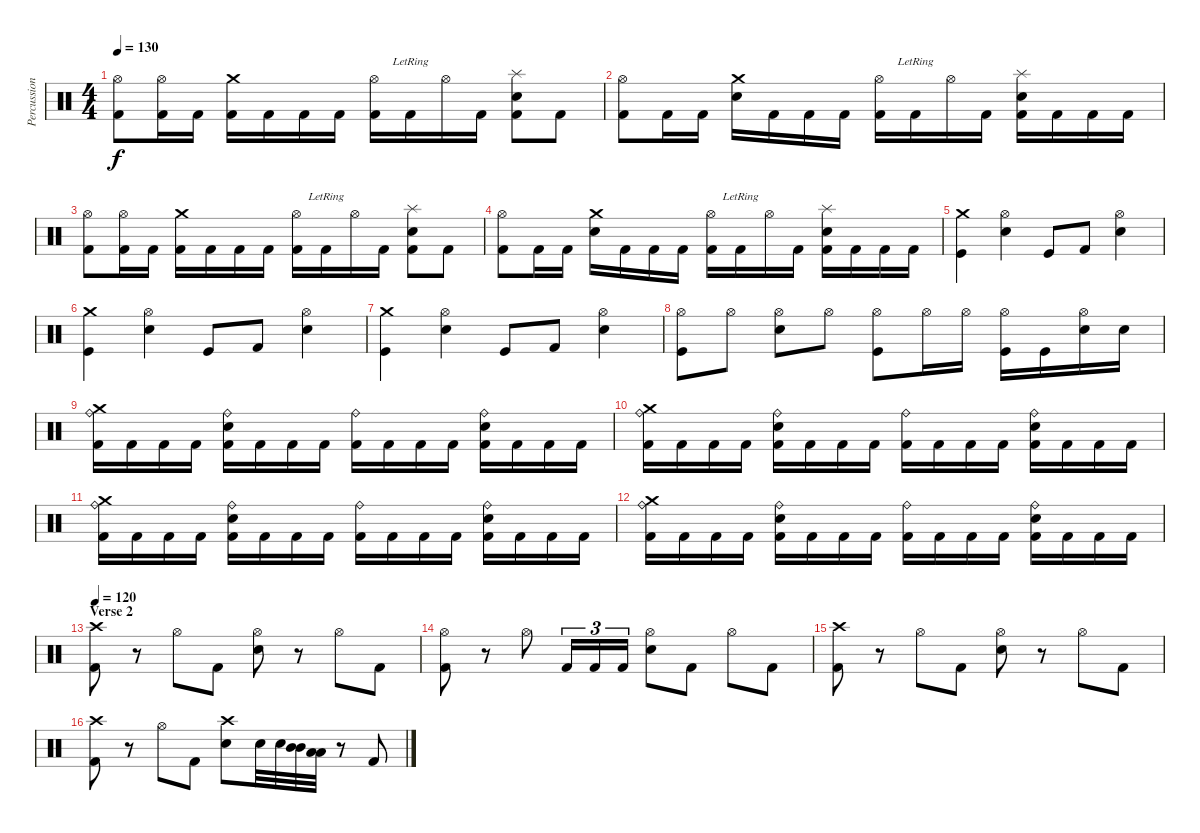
\track ("Percussion" "Percussion") {instrument percussion}
\staff {score}
\articulation defaults
\ts (4 4)
\tempo 130
\clef neutral
\ks c
("Kick (hit) 2" "Hi-Hat (open)").8{dy f} ("Kick (hit) 2" "Hi-Hat (open)").16 "Kick (hit) 2".16 ("Kick (hit) 2" "Crash medium (hit)").16 "Kick (hit) 2".16 "Kick (hit) 2".16 "Kick (hit) 2".16 ("Kick (hit) 2" "Hi-Hat (open)").16 "Kick (hit) 2"{lr}.16 "Hi-Hat (open)".16 "Kick (hit) 2".16 ("Kick (hit) 2" "Snare (hit) 2" "Splash (hit)").8 "Kick (hit) 2".8 |
("Kick (hit) 2" "Hi-Hat (open)").8 "Kick (hit) 2".16 "Kick (hit) 2".16 ("Snare (hit) 2" "Crash medium (hit)").16 "Kick (hit) 2".16 "Kick (hit) 2".16 "Kick (hit) 2".16 ("Kick (hit) 2" "Hi-Hat (open)").16 "Kick (hit) 2"{lr}.16 "Hi-Hat (open)".16 "Kick (hit) 2".16 ("Kick (hit) 2" "Snare (hit) 2" "Splash (hit)").16 "Kick (hit) 2".16 "Kick (hit) 2".16 "Kick (hit) 2".16 |
("Kick (hit) 2" "Hi-Hat (open)").8 ("Kick (hit) 2" "Hi-Hat (open)").16 "Kick (hit) 2".16 ("Kick (hit) 2" "Crash medium (hit)").16 "Kick (hit) 2".16 "Kick (hit) 2".16 "Kick (hit) 2".16 ("Kick (hit) 2" "Hi-Hat (open)").16 "Kick (hit) 2"{lr}.16 "Hi-Hat (open)".16 "Kick (hit) 2".16 ("Kick (hit) 2" "Snare (hit) 2" "Splash (hit)").8 "Kick (hit) 2".8 |
("Kick (hit) 2" "Hi-Hat (open)").8 "Kick (hit) 2".16 "Kick (hit) 2".16 ("Snare (hit) 2" "Crash medium (hit)").16 "Kick (hit) 2".16 "Kick (hit) 2".16 "Kick (hit) 2".16 ("Kick (hit) 2" "Hi-Hat (open)").16 "Kick (hit) 2"{lr}.16 "Hi-Hat (open)".16 "Kick (hit) 2".16 ("Kick (hit) 2" "Snare (hit) 2" "Splash (hit)").16 "Kick (hit) 2".16 "Kick (hit) 2".16 "Kick (hit) 2".16 |
("Crash medium (hit)" "Kick (hit)").4 ("Hi-Hat (open)" "Snare (hit) 2").4 "Kick (hit)".8 "Kick (hit) 2".8 ("Hi-Hat (open)" "Snare (hit) 2").4 |
("Crash medium (hit)" "Kick (hit)").4 ("Hi-Hat (open)" "Snare (hit) 2").4 "Kick (hit)".8 "Kick (hit) 2".8 ("Hi-Hat (open)" "Snare (hit) 2").4 |
("Crash medium (hit)" "Kick (hit)").4 ("Hi-Hat (open)" "Snare (hit) 2").4 "Kick (hit)".8 "Kick (hit) 2".8 ("Hi-Hat (open)" "Snare (hit) 2").4 |
("Hi-Hat (open)" "Kick (hit)").8 "Hi-Hat (open)".8 ("Hi-Hat (open)" "Snare (hit) 2").8 "Hi-Hat (open)".8 ("Hi-Hat (open)" "Kick (hit)").8 "Hi-Hat (open)".16 "Hi-Hat (open)".16 ("Hi-Hat (open)" "Kick (hit)").16 "Kick (hit)".16 ("Hi-Hat (open)" "Snare (hit) 2").16 "Snare (hit) 2".16 |
("Ride (bell)" "Crash medium (hit)" "Kick (hit) 2").16 "Kick (hit) 2".16 "Kick (hit) 2".16 "Kick (hit) 2".16 ("Ride (bell)" "Snare (hit) 2" "Kick (hit) 2").16 "Kick (hit) 2".16 "Kick (hit) 2".16 "Kick (hit) 2".16 ("Ride (bell)" "Kick (hit) 2").16 "Kick (hit) 2".16 "Kick (hit) 2".16 "Kick (hit) 2".16 ("Ride (bell)" "Snare (hit) 2" "Kick (hit) 2").16 "Kick (hit) 2".16 "Kick (hit) 2".16 "Kick (hit) 2".16 |
("Ride (bell)" "Crash medium (hit)" "Kick (hit) 2").16 "Kick (hit) 2".16 "Kick (hit) 2".16 "Kick (hit) 2".16 ("Ride (bell)" "Snare (hit) 2" "Kick (hit) 2").16 "Kick (hit) 2".16 "Kick (hit) 2".16 "Kick (hit) 2".16 ("Ride (bell)" "Kick (hit) 2").16 "Kick (hit) 2".16 "Kick (hit) 2".16 "Kick (hit) 2".16 ("Ride (bell)" "Snare (hit) 2" "Kick (hit) 2").16 "Kick (hit) 2".16 "Kick (hit) 2".16 "Kick (hit) 2".16 |
("Ride (bell)" "Crash medium (hit)" "Kick (hit) 2").16 "Kick (hit) 2".16 "Kick (hit) 2".16 "Kick (hit) 2".16 ("Ride (bell)" "Snare (hit) 2" "Kick (hit) 2").16 "Kick (hit) 2".16 "Kick (hit) 2".16 "Kick (hit) 2".16 ("Ride (bell)" "Kick (hit) 2").16 "Kick (hit) 2".16 "Kick (hit) 2".16 "Kick (hit) 2".16 ("Ride (bell)" "Snare (hit) 2" "Kick (hit) 2").16 "Kick (hit) 2".16 "Kick (hit) 2".16 "Kick (hit) 2".16 |
("Ride (bell)" "Crash medium (hit)" "Kick (hit) 2").16 "Kick (hit) 2".16 "Kick (hit) 2".16 "Kick (hit) 2".16 ("Ride (bell)" "Snare (hit) 2" "Kick (hit) 2").16 "Kick (hit) 2".16 "Kick (hit) 2".16 "Kick (hit) 2".16 ("Ride (bell)" "Kick (hit) 2").16 "Kick (hit) 2".16 "Kick (hit) 2".16 "Kick (hit) 2".16 ("Ride (bell)" "Snare (hit) 2" "Kick (hit) 2").16 "Kick (hit) 2".16 "Kick (hit) 2".16 "Kick (hit) 2".16 |
\section ("" "Verse 2")
\tempo 120
("Crash high (hit)" "Kick (hit) 2").8 r.8 "Hi-Hat (open)".8 "Kick (hit) 2".8 ("Hi-Hat (open)" "Electric Snare (hit)").8 r.8 "Hi-Hat (open)".8 "Kick (hit) 2".8 |
("Hi-Hat (open)" "Kick (hit) 2").8 r.8 "Hi-Hat (open)".8 "Kick (hit) 2".16{tu (3 2)} "Kick (hit) 2".16{tu (3 2)} "Kick (hit) 2".16{tu (3 2)} ("Hi-Hat (open)" "Electric Snare (hit)").8 "Kick (hit) 2".8 "Hi-Hat (open)".8 "Kick (hit) 2".8 |
("Crash high (hit)" "Kick (hit) 2").8 r.8 "Hi-Hat (open)".8 "Kick (hit) 2".8 ("Hi-Hat (open)" "Electric Snare (hit)").8 r.8 "Hi-Hat (open)".8 "Kick (hit) 2".8 |
("Crash high (hit)" "Kick (hit) 2").8 r.8 "Hi-Hat (open)".8 "Kick (hit) 2".8 ("Crash high (hit)" "Electric Snare (hit)").8 "Electric Snare (hit)".32 "Electric Snare (hit)".32 ("Mid Tom (hit)" "Mid Tom (hit)").32 ("Low Tom (hit)" "Low Tom (hit)").32 r.8 "Kick (hit) 2".8
